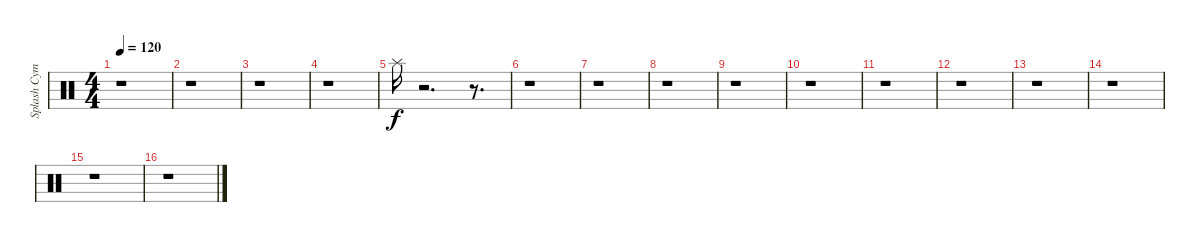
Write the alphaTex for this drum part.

\track ("Splash Cymbal" "Splash Cym") {instrument percussion}
\staff {score}
\articulation defaults
\ts (4 4)
\tempo 120
\clef neutral
\ks c
r.1{dy f} |
r.1 |
r.1 |
r.1 |
"Splash (hit)".16 r.2{d} r.8{d} |
r.1 |
r.1 |
r.1 |
r.1 |
r.1 |
r.1 |
r.1 |
r.1 |
r.1 |
r.1 |
r.1
